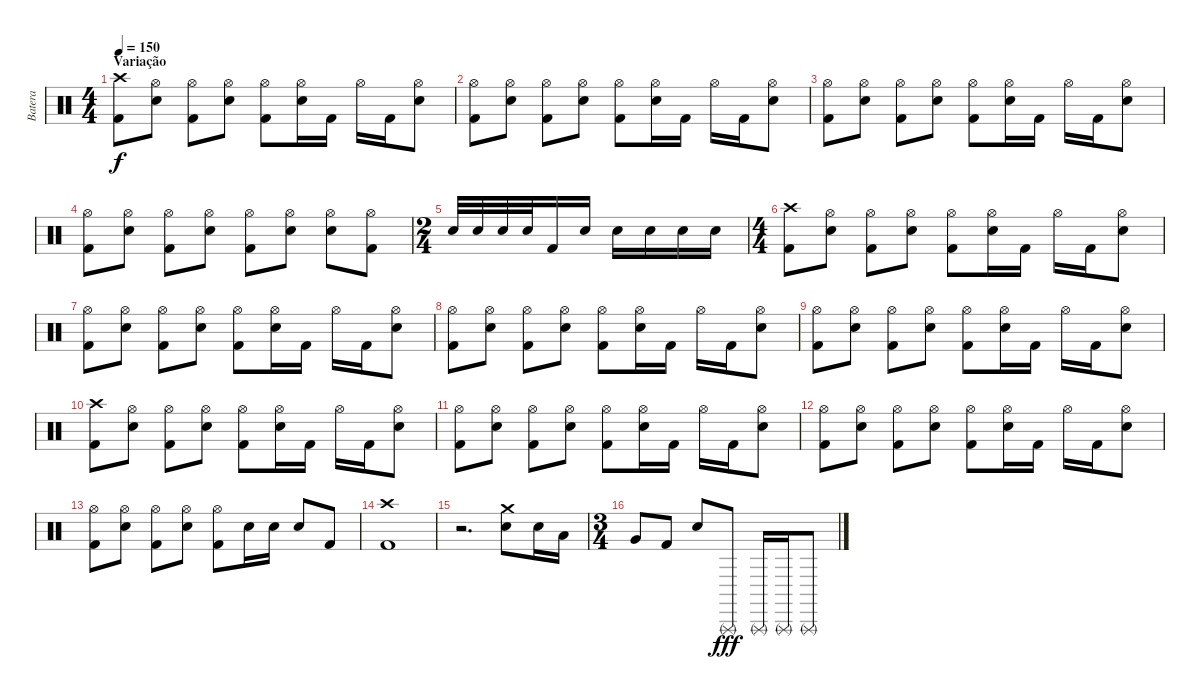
\track ("Batera" "Batera") {instrument percussion}
\staff {score}
\articulation defaults
\ts (4 4)
\section ("" "Variação")
\tempo 150
\clef neutral
\ks c
("Crash high (hit)" "Kick (hit) 2").8{dy f} ("Hi-Hat (open)" "Snare (hit) 2").8 ("Hi-Hat (open)" "Kick (hit) 2").8 ("Hi-Hat (open)" "Snare (hit) 2").8 ("Hi-Hat (open)" "Kick (hit) 2").8 ("Hi-Hat (open)" "Snare (hit) 2").16 "Kick (hit) 2".16 "Hi-Hat (open)".16 "Kick (hit) 2".16 ("Hi-Hat (open)" "Snare (hit) 2").8 |
("Hi-Hat (open)" "Kick (hit) 2").8 ("Hi-Hat (open)" "Snare (hit) 2").8 ("Hi-Hat (open)" "Kick (hit) 2").8 ("Hi-Hat (open)" "Snare (hit) 2").8 ("Hi-Hat (open)" "Kick (hit) 2").8 ("Hi-Hat (open)" "Snare (hit) 2").16 "Kick (hit) 2".16 "Hi-Hat (open)".16 "Kick (hit) 2".16 ("Hi-Hat (open)" "Snare (hit) 2").8 |
("Hi-Hat (open)" "Kick (hit) 2").8 ("Hi-Hat (open)" "Snare (hit) 2").8 ("Hi-Hat (open)" "Kick (hit) 2").8 ("Hi-Hat (open)" "Snare (hit) 2").8 ("Hi-Hat (open)" "Kick (hit) 2").8 ("Hi-Hat (open)" "Snare (hit) 2").16 "Kick (hit) 2".16 "Hi-Hat (open)".16 "Kick (hit) 2".16 ("Hi-Hat (open)" "Snare (hit) 2").8 |
("Hi-Hat (open)" "Kick (hit) 2").8 ("Hi-Hat (open)" "Snare (hit) 2").8 ("Hi-Hat (open)" "Kick (hit) 2").8 ("Hi-Hat (open)" "Snare (hit) 2").8 ("Hi-Hat (open)" "Kick (hit) 2").8 ("Hi-Hat (open)" "Snare (hit) 2").8 ("Hi-Hat (open)" "Snare (hit) 2").8 ("Hi-Hat (open)" "Kick (hit) 2").8 |
\ts (2 4)
"Snare (hit) 2".32 "Snare (hit) 2".32 "Snare (hit) 2".32 "Snare (hit) 2".32 "Kick (hit) 2".16 "Snare (hit) 2".16 "Snare (hit) 2".16 "Snare (hit) 2".16 "Snare (hit) 2".16 "Snare (hit) 2".16 |
\ts (4 4)
("Crash high (hit)" "Kick (hit) 2").8 ("Hi-Hat (open)" "Snare (hit) 2").8 ("Hi-Hat (open)" "Kick (hit) 2").8 ("Hi-Hat (open)" "Snare (hit) 2").8 ("Hi-Hat (open)" "Kick (hit) 2").8 ("Hi-Hat (open)" "Snare (hit) 2").16 "Kick (hit) 2".16 "Hi-Hat (open)".16 "Kick (hit) 2".16 ("Hi-Hat (open)" "Snare (hit) 2").8 |
("Hi-Hat (open)" "Kick (hit) 2").8 ("Hi-Hat (open)" "Snare (hit) 2").8 ("Hi-Hat (open)" "Kick (hit) 2").8 ("Hi-Hat (open)" "Snare (hit) 2").8 ("Hi-Hat (open)" "Kick (hit) 2").8 ("Hi-Hat (open)" "Snare (hit) 2").16 "Kick (hit) 2".16 "Hi-Hat (open)".16 "Kick (hit) 2".16 ("Hi-Hat (open)" "Snare (hit) 2").8 |
("Hi-Hat (open)" "Kick (hit) 2").8 ("Hi-Hat (open)" "Snare (hit) 2").8 ("Hi-Hat (open)" "Kick (hit) 2").8 ("Hi-Hat (open)" "Snare (hit) 2").8 ("Hi-Hat (open)" "Kick (hit) 2").8 ("Hi-Hat (open)" "Snare (hit) 2").16 "Kick (hit) 2".16 "Hi-Hat (open)".16 "Kick (hit) 2".16 ("Hi-Hat (open)" "Snare (hit) 2").8 |
("Hi-Hat (open)" "Kick (hit) 2").8 ("Hi-Hat (open)" "Snare (hit) 2").8 ("Hi-Hat (open)" "Kick (hit) 2").8 ("Hi-Hat (open)" "Snare (hit) 2").8 ("Hi-Hat (open)" "Kick (hit) 2").8 ("Hi-Hat (open)" "Snare (hit) 2").16 "Kick (hit) 2".16 "Hi-Hat (open)".16 "Kick (hit) 2".16 ("Hi-Hat (open)" "Snare (hit) 2").8 |
("Crash high (hit)" "Kick (hit) 2").8 ("Hi-Hat (open)" "Snare (hit) 2").8 ("Hi-Hat (open)" "Kick (hit) 2").8 ("Hi-Hat (open)" "Snare (hit) 2").8 ("Hi-Hat (open)" "Kick (hit) 2").8 ("Hi-Hat (open)" "Snare (hit) 2").16 "Kick (hit) 2".16 "Hi-Hat (open)".16 "Kick (hit) 2".16 ("Hi-Hat (open)" "Snare (hit) 2").8 |
("Hi-Hat (open)" "Kick (hit) 2").8 ("Hi-Hat (open)" "Snare (hit) 2").8 ("Hi-Hat (open)" "Kick (hit) 2").8 ("Hi-Hat (open)" "Snare (hit) 2").8 ("Hi-Hat (open)" "Kick (hit) 2").8 ("Hi-Hat (open)" "Snare (hit) 2").16 "Kick (hit) 2".16 "Hi-Hat (open)".16 "Kick (hit) 2".16 ("Hi-Hat (open)" "Snare (hit) 2").8 |
("Hi-Hat (open)" "Kick (hit) 2").8 ("Hi-Hat (open)" "Snare (hit) 2").8 ("Hi-Hat (open)" "Kick (hit) 2").8 ("Hi-Hat (open)" "Snare (hit) 2").8 ("Hi-Hat (open)" "Kick (hit) 2").8 ("Hi-Hat (open)" "Snare (hit) 2").16 "Kick (hit) 2".16 "Hi-Hat (open)".16 "Kick (hit) 2".16 ("Hi-Hat (open)" "Snare (hit) 2").8 |
("Hi-Hat (open)" "Kick (hit) 2").8 ("Hi-Hat (open)" "Snare (hit) 2").8 ("Hi-Hat (open)" "Kick (hit) 2").8 ("Hi-Hat (open)" "Snare (hit) 2").8 ("Hi-Hat (open)" "Kick (hit) 2").8 "Snare (hit) 2".16 "Snare (hit) 2".16 "Snare (hit) 2".8 "Kick (hit) 2".8 |
("Crash high (hit)" "Kick (hit) 2").1 |
r.2{d} ("Crash medium (hit)" "Snare (hit) 2").8 "Snare (hit) 2".16 "Low Tom (hit)".16 |
\ts (3 4)
"Very Low Tom (hit)".8 "Kick (hit) 2".8 "Snare (hit) 2".8 "Triangle (rnute)".8{dy fff} "Triangle (rnute)".16 "Triangle (rnute)".16 "Triangle (rnute)".8
